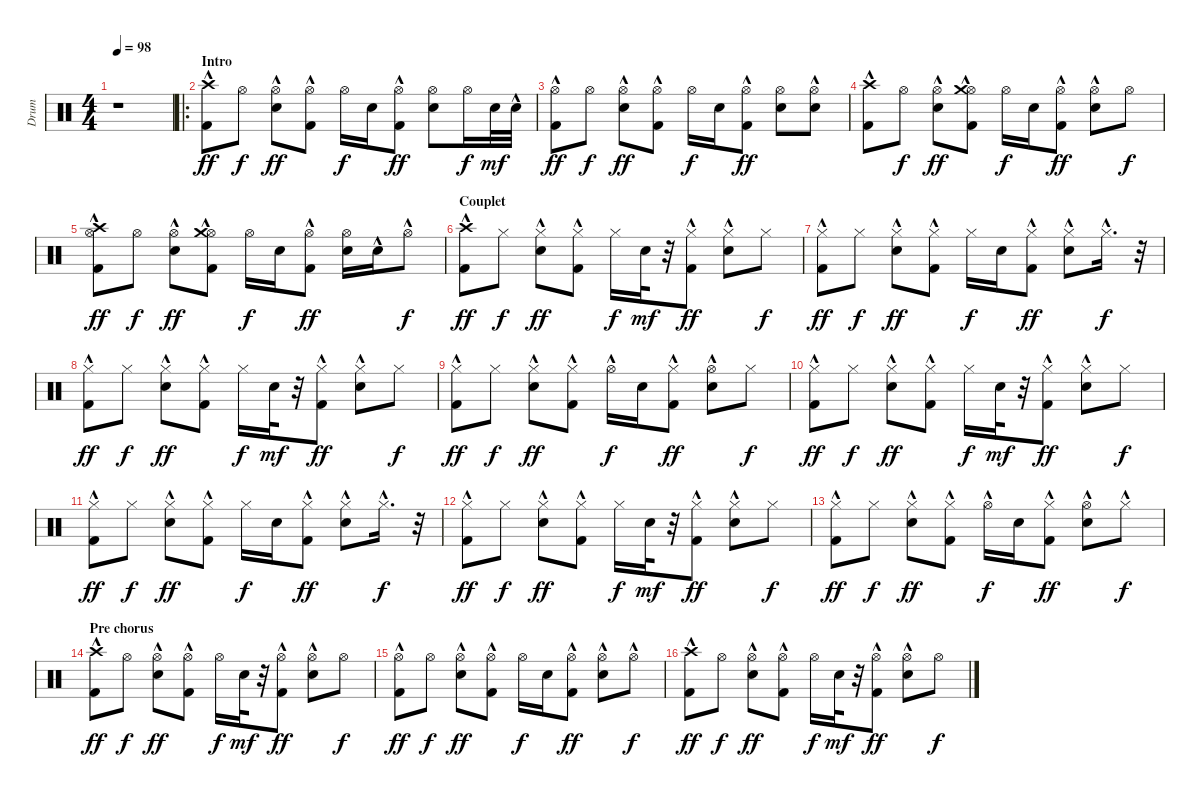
\track ("Drum" "Drum") {instrument percussion}
\staff {score}
\articulation defaults
\ts (4 4)
\tempo 98
\clef neutral
\ks c
r.1{dy ff} |
\ro
\section ("" "Intro")
("Kick (hit) 2"{hac} "Crash high (hit)"{hac}).8 "Hi-Hat (open)".8{dy f} ("Hi-Hat (open)" "Electric Snare (hit)"{hac}).8{dy ff} ("Kick (hit) 2"{hac} "Hi-Hat (open)").8 "Hi-Hat (open)".16{dy f} "Electric Snare (hit)".16 ("Kick (hit) 2"{hac} "Hi-Hat (open)").8{dy ff} ("Electric Snare (hit)" "Hi-Hat (open)").8 "Hi-Hat (open)".16{dy f} "Electric Snare (hit)".32{dy mf} "Electric Snare (hit)"{hac}.32 |
("Hi-Hat (open)" "Kick (hit) 2"{hac}).8{dy ff} "Hi-Hat (open)".8{dy f} ("Electric Snare (hit)"{hac} "Hi-Hat (open)").8{dy ff} ("Kick (hit) 2"{hac} "Hi-Hat (open)").8 "Hi-Hat (open)".16{dy f} "Electric Snare (hit)".16 ("Kick (hit) 2"{hac} "Hi-Hat (open)").8{dy ff} ("Hi-Hat (open)" "Electric Snare (hit)").8 ("Electric Snare (hit)"{hac} "Hi-Hat (open)"{hac}).8 |
("Kick (hit) 2"{hac} "Crash high (hit)"{hac}).8 "Hi-Hat (open)".8{dy f} ("Hi-Hat (open)" "Electric Snare (hit)"{hac}).8{dy ff} ("Kick (hit) 2"{hac} "Hi-Hat (open)" "Crash medium (hit)"{hac}).8 "Hi-Hat (open)".16{dy f} "Electric Snare (hit)".16 ("Kick (hit) 2"{hac} "Hi-Hat (open)").8{dy ff} ("Electric Snare (hit)"{hac} "Hi-Hat (open)").8 "Hi-Hat (open)".8{dy f} |
("Crash high (hit)"{hac} "Hi-Hat (open)" "Kick (hit) 2"{hac}).8{dy ff} "Hi-Hat (open)".8{dy f} ("Electric Snare (hit)"{hac} "Hi-Hat (open)").8{dy ff} ("Kick (hit) 2"{hac} "Hi-Hat (open)" "Crash medium (hit)"{hac}).8 "Hi-Hat (open)".16{dy f} "Electric Snare (hit)".16 ("Kick (hit) 2"{hac} "Hi-Hat (open)").8{dy ff} ("Hi-Hat (open)" "Electric Snare (hit)").16 "Electric Snare (hit)"{hac}.16 "Hi-Hat (open)"{hac}.8{dy f} |
\section ("" "Couplet")
("Crash high (hit)"{hac} "Kick (hit) 2"{hac}).8{dy ff} "Hi-Hat (closed)".8{dy f} ("Electric Snare (hit)"{hac} "Hi-Hat (closed)").8{dy ff} ("Hi-Hat (closed)" "Kick (hit) 2"{hac}).8 "Hi-Hat (closed)".16{dy f} "Electric Snare (hit)".32{dy mf} r.32 ("Hi-Hat (closed)" "Kick (hit) 2"{hac}).8{dy ff} ("Hi-Hat (closed)" "Electric Snare (hit)"{hac}).8 "Hi-Hat (closed)".8{dy f} |
("Kick (hit) 2"{hac} "Hi-Hat (closed)").8{dy ff} "Hi-Hat (closed)".8{dy f} ("Hi-Hat (closed)" "Electric Snare (hit)"{hac}).8{dy ff} ("Hi-Hat (closed)" "Kick (hit) 2"{hac}).8 "Hi-Hat (closed)".16{dy f} "Electric Snare (hit)".16 ("Hi-Hat (closed)" "Kick (hit) 2"{hac}).8{dy ff} ("Electric Snare (hit)"{hac} "Hi-Hat (closed)").8 "Hi-Hat (closed)"{hac}.16{d dy f} r.32 |
("Hi-Hat (closed)"{hac} "Kick (hit) 2"{hac}).8{dy ff} "Hi-Hat (closed)".8{dy f} ("Electric Snare (hit)"{hac} "Hi-Hat (closed)").8{dy ff} ("Hi-Hat (closed)" "Kick (hit) 2"{hac}).8 "Hi-Hat (closed)".16{dy f} "Electric Snare (hit)".32{dy mf} r.32 ("Hi-Hat (closed)" "Kick (hit) 2"{hac}).8{dy ff} ("Hi-Hat (closed)" "Electric Snare (hit)"{hac}).8 "Hi-Hat (closed)".8{dy f} |
("Kick (hit) 2"{hac} "Hi-Hat (closed)").8{dy ff} "Hi-Hat (closed)".8{dy f} ("Hi-Hat (closed)" "Electric Snare (hit)"{hac}).8{dy ff} ("Hi-Hat (closed)"{hac} "Kick (hit) 2"{hac}).8 "Hi-Hat (open)"{hac}.16{dy f} "Electric Snare (hit)".16 ("Hi-Hat (closed)"{hac} "Kick (hit) 2"{hac}).8{dy ff} ("Electric Snare (hit)"{hac} "Hi-Hat (open)"{hac}).8 "Hi-Hat (closed)".8{dy f} |
("Hi-Hat (closed)"{hac} "Kick (hit) 2"{hac}).8{dy ff} "Hi-Hat (closed)".8{dy f} ("Electric Snare (hit)"{hac} "Hi-Hat (closed)").8{dy ff} ("Hi-Hat (closed)" "Kick (hit) 2"{hac}).8 "Hi-Hat (closed)".16{dy f} "Electric Snare (hit)".32{dy mf} r.32 ("Hi-Hat (closed)" "Kick (hit) 2"{hac}).8{dy ff} ("Hi-Hat (closed)" "Electric Snare (hit)"{hac}).8 "Hi-Hat (closed)".8{dy f} |
("Kick (hit) 2"{hac} "Hi-Hat (closed)").8{dy ff} "Hi-Hat (closed)".8{dy f} ("Hi-Hat (closed)" "Electric Snare (hit)"{hac}).8{dy ff} ("Hi-Hat (closed)" "Kick (hit) 2"{hac}).8 "Hi-Hat (closed)".16{dy f} "Electric Snare (hit)".16 ("Hi-Hat (closed)" "Kick (hit) 2"{hac}).8{dy ff} ("Electric Snare (hit)"{hac} "Hi-Hat (closed)").8 "Hi-Hat (closed)"{hac}.16{d dy f} r.32 |
("Hi-Hat (closed)"{hac} "Kick (hit) 2"{hac}).8{dy ff} "Hi-Hat (closed)".8{dy f} ("Electric Snare (hit)"{hac} "Hi-Hat (closed)").8{dy ff} ("Hi-Hat (closed)" "Kick (hit) 2"{hac}).8 "Hi-Hat (closed)".16{dy f} "Electric Snare (hit)".32{dy mf} r.32 ("Hi-Hat (closed)" "Kick (hit) 2"{hac}).8{dy ff} ("Hi-Hat (closed)" "Electric Snare (hit)"{hac}).8 "Hi-Hat (closed)".8{dy f} |
("Kick (hit) 2"{hac} "Hi-Hat (closed)").8{dy ff} "Hi-Hat (closed)".8{dy f} ("Hi-Hat (closed)" "Electric Snare (hit)"{hac}).8{dy ff} ("Hi-Hat (closed)"{hac} "Kick (hit) 2"{hac}).8 "Hi-Hat (open)"{hac}.16{dy f} "Electric Snare (hit)".16 ("Hi-Hat (closed)"{hac} "Kick (hit) 2"{hac}).8{dy ff} ("Electric Snare (hit)"{hac} "Hi-Hat (open)"{hac}).8 "Hi-Hat (closed)"{hac}.8{dy f} |
\section ("" "Pre chorus")
("Crash high (hit)"{hac} "Kick (hit) 2"{hac}).8{dy ff} "Hi-Hat (open)".8{dy f} ("Electric Snare (hit)"{hac} "Hi-Hat (open)").8{dy ff} ("Hi-Hat (open)" "Kick (hit) 2"{hac}).8 "Hi-Hat (open)".16{dy f} "Electric Snare (hit)".32{dy mf} r.32 ("Hi-Hat (open)" "Kick (hit) 2"{hac}).8{dy ff} ("Hi-Hat (open)" "Electric Snare (hit)"{hac}).8 "Hi-Hat (open)".8{dy f} |
("Kick (hit) 2"{hac} "Hi-Hat (open)").8{dy ff} "Hi-Hat (open)".8{dy f} ("Hi-Hat (open)" "Electric Snare (hit)"{hac}).8{dy ff} ("Hi-Hat (open)" "Kick (hit) 2"{hac}).8 "Hi-Hat (open)".16{dy f} "Electric Snare (hit)".16 ("Hi-Hat (open)" "Kick (hit) 2"{hac}).8{dy ff} ("Electric Snare (hit)"{hac} "Hi-Hat (open)").8 "Hi-Hat (open)"{hac}.8{dy f} |
("Crash high (hit)"{hac} "Kick (hit) 2"{hac}).8{dy ff} "Hi-Hat (open)".8{dy f} ("Electric Snare (hit)"{hac} "Hi-Hat (open)").8{dy ff} ("Hi-Hat (open)" "Kick (hit) 2"{hac}).8 "Hi-Hat (open)".16{dy f} "Electric Snare (hit)".32{dy mf} r.32 ("Hi-Hat (open)" "Kick (hit) 2"{hac}).8{dy ff} ("Hi-Hat (open)" "Electric Snare (hit)"{hac}).8 "Hi-Hat (open)".8{dy f}
